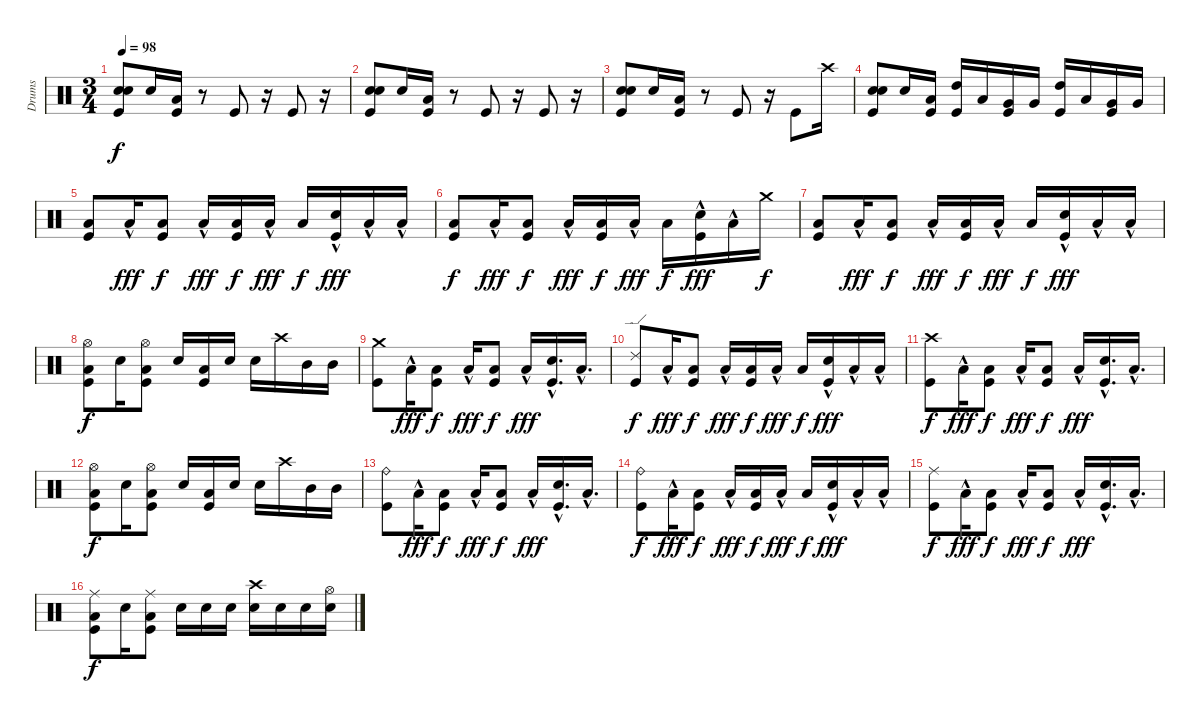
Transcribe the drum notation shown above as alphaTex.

\track ("Drums" "Drums") {instrument percussion}
\staff {score}
\articulation defaults
\ts (3 4)
\tempo 98
\clef neutral
\ks c
("Kick (hit)" "Snare (hit) 2" "Snare (hit) 2").8{dy f} "Snare (hit) 2".16 ("Low Floor Tom (hit)" "Kick (hit)").16 r.8 "Kick (hit)".8 r.16{beam split} "Kick (hit)".8 r.16 |
("Kick (hit)" "Snare (hit) 2" "Snare (hit) 2").8 "Snare (hit) 2".16 ("Low Floor Tom (hit)" "Kick (hit)").16 r.8 "Kick (hit)".8 r.16{beam split} "Kick (hit)".8 r.16 |
("Kick (hit)" "Snare (hit) 2" "Snare (hit) 2").8 "Snare (hit) 2".16 ("Low Floor Tom (hit)" "Kick (hit)").16 r.8 "Kick (hit)".8 r.16{beam split} "Kick (hit)".8 "Crash high (hit)".16 |
("Kick (hit)" "Snare (hit) 2" "Snare (hit) 2").8 "Snare (hit) 2".16 ("Low Floor Tom (hit)" "Kick (hit)").16 ("Kick (hit)" "High Tom (hit)").16 "Low Tom (hit)".16 ("Very Low Tom (hit)" "Kick (hit)").16 "Very Low Tom (hit)".16 ("Kick (hit)" "High Tom (hit)").16 "Low Tom (hit)".16 ("Very Low Tom (hit)" "Kick (hit)").16 "Very Low Tom (hit)".16 |
("Low Floor Tom (hit)" "Kick (hit)").8 "Low Floor Tom (hit)"{hac}.16{dy fff} ("Low Floor Tom (hit)" "Kick (hit)").8{dy f} "Low Floor Tom (hit)"{hac}.16{dy fff} ("Low Floor Tom (hit)" "Kick (hit)").16{dy f} "Low Floor Tom (hit)"{hac}.16{dy fff} "Low Floor Tom (hit)".16{dy f} ("Snare (hit) 2"{hac} "Kick (hit)").16{dy fff} "Low Floor Tom (hit)"{hac}.16 "Low Floor Tom (hit)"{hac}.16 |
("Low Floor Tom (hit)" "Kick (hit)").8{dy f} "Low Floor Tom (hit)"{hac}.16{dy fff} ("Low Floor Tom (hit)" "Kick (hit)").8{dy f} "Low Floor Tom (hit)"{hac}.16{dy fff} ("Low Floor Tom (hit)" "Kick (hit)").16{dy f} "Low Floor Tom (hit)"{hac}.16{dy fff} "Low Floor Tom (hit)".16{dy f} ("Snare (hit) 2"{hac} "Kick (hit)").16{dy fff} "Low Floor Tom (hit)"{hac}.16 "Crash medium (hit)".16{dy f} |
("Low Floor Tom (hit)" "Kick (hit)").8 "Low Floor Tom (hit)"{hac}.16{dy fff} ("Low Floor Tom (hit)" "Kick (hit)").8{dy f} "Low Floor Tom (hit)"{hac}.16{dy fff} ("Low Floor Tom (hit)" "Kick (hit)").16{dy f} "Low Floor Tom (hit)"{hac}.16{dy fff} "Low Floor Tom (hit)".16{dy f} ("Snare (hit) 2"{hac} "Kick (hit)").16{dy fff} "Low Floor Tom (hit)"{hac}.16 "Low Floor Tom (hit)"{hac}.16 |
("Low Floor Tom (hit)" "Kick (hit)" "Hi-Hat (open)").8{dy f} "Snare (hit) 2".16 ("Kick (hit)" "Low Floor Tom (hit)" "Hi-Hat (open)").8 "Snare (hit) 2".16 ("Low Floor Tom (hit)" "Kick (hit)").16 "Snare (hit) 2".16 "Snare (hit) 2".16 "Crash high (hit)".16 "Mid Tom (hit)".16 "Mid Tom (hit)".16 |
("Crash medium (hit)" "Kick (hit)").8 "Low Floor Tom (hit)"{hac}.16{dy fff} ("Low Floor Tom (hit)" "Kick (hit)").8{dy f} "Low Floor Tom (hit)"{hac}.16{dy fff} ("Low Floor Tom (hit)" "Kick (hit)").8{dy f} "Low Floor Tom (hit)"{hac}.16{dy fff} ("Snare (hit) 2"{hac} "Kick (hit)").16{d} "Low Floor Tom (hit)"{hac}.16{d} |
("Ride (edge) 2" "Kick (hit)").8{dy f} "Low Floor Tom (hit)"{hac}.16{dy fff} ("Low Floor Tom (hit)" "Kick (hit)").8{dy f} "Low Floor Tom (hit)"{hac}.16{dy fff} ("Low Floor Tom (hit)" "Kick (hit)").16{dy f} "Low Floor Tom (hit)"{hac}.16{dy fff} "Low Floor Tom (hit)".16{dy f} ("Snare (hit) 2"{hac} "Kick (hit)").16{dy fff} "Low Floor Tom (hit)"{hac}.16 "Low Floor Tom (hit)"{hac}.16 |
("Crash high (hit)" "Kick (hit)").8{dy f} "Low Floor Tom (hit)"{hac}.16{dy fff} ("Low Floor Tom (hit)" "Kick (hit)").8{dy f} "Low Floor Tom (hit)"{hac}.16{dy fff} ("Low Floor Tom (hit)" "Kick (hit)").8{dy f} "Low Floor Tom (hit)"{hac}.16{dy fff} ("Snare (hit) 2"{hac} "Kick (hit)").16{d} "Low Floor Tom (hit)"{hac}.16{d} |
("Low Floor Tom (hit)" "Kick (hit)" "Hi-Hat (open)").8{dy f} "Snare (hit) 2".16 ("Kick (hit)" "Low Floor Tom (hit)" "Hi-Hat (open)").8 "Snare (hit) 2".16 ("Low Floor Tom (hit)" "Kick (hit)").16 "Snare (hit) 2".16 "Snare (hit) 2".16 "Crash high (hit)".16 "Mid Tom (hit)".16 "Mid Tom (hit)".16 |
("Ride (bell)" "Kick (hit)").8 "Low Floor Tom (hit)"{hac}.16{dy fff} ("Low Floor Tom (hit)" "Kick (hit)").8{dy f} "Low Floor Tom (hit)"{hac}.16{dy fff} ("Low Floor Tom (hit)" "Kick (hit)").8{dy f} "Low Floor Tom (hit)"{hac}.16{dy fff} ("Snare (hit) 2"{hac} "Kick (hit)").16{d} "Low Floor Tom (hit)"{hac}.16{d} |
("Ride (bell)" "Kick (hit)").8{dy f} "Low Floor Tom (hit)"{hac}.16{dy fff} ("Low Floor Tom (hit)" "Kick (hit)").8{dy f} "Low Floor Tom (hit)"{hac}.16{dy fff} ("Low Floor Tom (hit)" "Kick (hit)").16{dy f} "Low Floor Tom (hit)"{hac}.16{dy fff} "Low Floor Tom (hit)".16{dy f} ("Snare (hit) 2"{hac} "Kick (hit)").16{dy fff} "Low Floor Tom (hit)"{hac}.16 "Low Floor Tom (hit)"{hac}.16 |
("Ride (middle)" "Kick (hit)").8{dy f} "Low Floor Tom (hit)"{hac}.16{dy fff} ("Low Floor Tom (hit)" "Kick (hit)").8{dy f} "Low Floor Tom (hit)"{hac}.16{dy fff} ("Low Floor Tom (hit)" "Kick (hit)").8{dy f} "Low Floor Tom (hit)"{hac}.16{dy fff} ("Snare (hit) 2"{hac} "Kick (hit)").16{d} "Low Floor Tom (hit)"{hac}.16{d} |
("Low Floor Tom (hit)" "Kick (hit)" "Ride (middle)").8{dy f} "Snare (hit) 2".16 ("Kick (hit)" "Low Floor Tom (hit)" "Ride (middle)").8 "Snare (hit) 2".16 "Snare (hit) 2".16 "Snare (hit) 2".16 ("Snare (hit) 2" "Crash high (hit)").16 "Snare (hit) 2".16 "Snare (hit) 2".16 ("Snare (hit) 2" "Hi-Hat (open)").16
